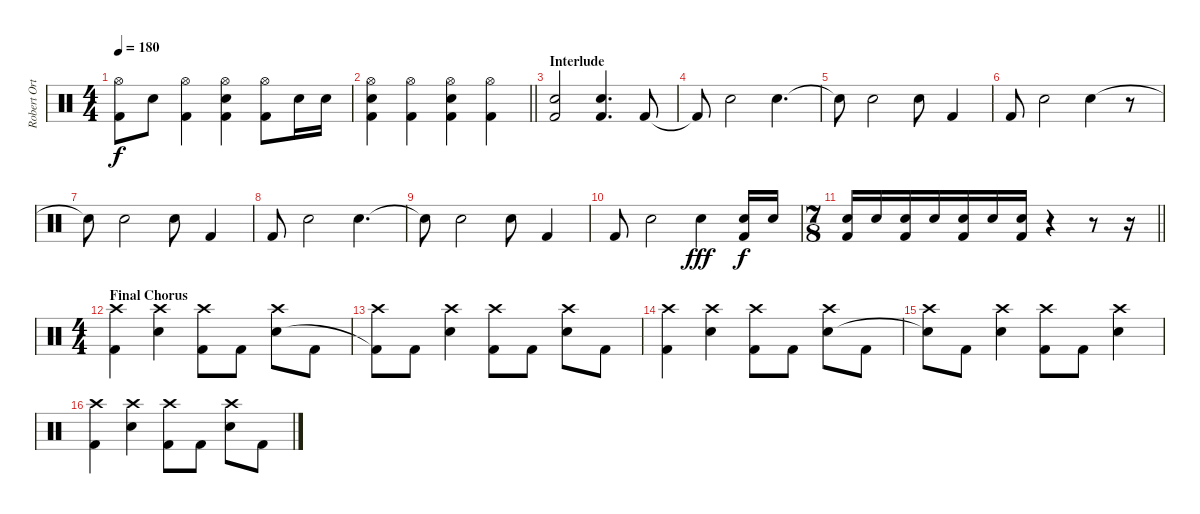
\track ("Robert Ortiz [Drums]" "Robert Ort") {instrument percussion}
\staff {score}
\articulation defaults
\ts (4 4)
\tempo 180
\clef neutral
\ks c
("Hi-Hat (open)" "Kick (hit) 2").8{dy f} "Electric Snare (hit)".8 ("Hi-Hat (open)" "Kick (hit) 2").4 ("Hi-Hat (open)" "Electric Snare (hit)" "Kick (hit) 2").4 ("Hi-Hat (open)" "Kick (hit) 2").8 "Electric Snare (hit)".16 "Electric Snare (hit)".16 |
\barLineRight lightlight
("Hi-Hat (open)" "Electric Snare (hit)" "Kick (hit) 2").4 ("Hi-Hat (open)" "Kick (hit) 2").4 ("Hi-Hat (open)" "Electric Snare (hit)" "Kick (hit) 2").4 ("Hi-Hat (open)" "Kick (hit) 2").4 |
\section ("" "Interlude")
("Electric Snare (hit)" "Kick (hit) 2").2 ("Electric Snare (hit)" "Kick (hit) 2").4{d} "Kick (hit) 2".8 |
"Kick (hit) 2"{t}.8 "Electric Snare (hit)".2 "Electric Snare (hit)".4{d} |
"Snare (hit)"{t}.8 "Electric Snare (hit)".2 "Electric Snare (hit)".8 "Kick (hit) 2".4 |
"Kick (hit) 2".8 "Electric Snare (hit)".2 "Electric Snare (hit)".4 r.8 |
"Snare (hit)"{t}.8 "Electric Snare (hit)".2 "Electric Snare (hit)".8 "Kick (hit) 2".4 |
"Kick (hit) 2".8 "Electric Snare (hit)".2 "Electric Snare (hit)".4{d} |
"Snare (hit)"{t}.8 "Electric Snare (hit)".2 "Electric Snare (hit)".8 "Kick (hit) 2".4 |
"Kick (hit) 2".8 "Electric Snare (hit)".2 "Electric Snare (hit)".4{dy fff} ("Electric Snare (hit)" "Kick (hit) 2").16{dy f} "Electric Snare (hit)".16 |
\ts (7 8)
\barLineRight lightlight
("Electric Snare (hit)" "Kick (hit) 2").16 "Electric Snare (hit)".16 ("Electric Snare (hit)" "Kick (hit) 2").16 "Electric Snare (hit)".16 ("Electric Snare (hit)" "Kick (hit) 2").16 "Electric Snare (hit)".16 ("Electric Snare (hit)" "Kick (hit) 2").16 r.4 r.8 r.16 |
\ts (4 4)
\section ("" "Final Chorus")
("Crash high (hit)" "Kick (hit) 2").4 ("Crash high (hit)" "Electric Snare (hit)").4 ("Crash high (hit)" "Kick (hit) 2").8 "Kick (hit) 2".8 ("Crash high (hit)" "Electric Snare (hit)").8 "Kick (hit) 2".8 |
("Crash high (hit)" "Kick (hit) 2"{t}).8 "Kick (hit) 2".8 ("Crash high (hit)" "Electric Snare (hit)").4 ("Crash high (hit)" "Kick (hit) 2").8 "Kick (hit) 2".8 ("Crash high (hit)" "Electric Snare (hit)").8 "Kick (hit) 2".8 |
("Crash high (hit)" "Kick (hit) 2").4 ("Crash high (hit)" "Electric Snare (hit)").4 ("Crash high (hit)" "Kick (hit) 2").8 "Kick (hit) 2".8 ("Crash high (hit)" "Electric Snare (hit)").8 "Kick (hit) 2".8 |
("Crash high (hit)" "Snare (hit)"{t}).8 "Kick (hit) 2".8 ("Crash high (hit)" "Electric Snare (hit)").4 ("Crash high (hit)" "Kick (hit) 2").8 "Kick (hit) 2".8 ("Crash high (hit)" "Electric Snare (hit)").4 |
("Crash high (hit)" "Kick (hit) 2").4 ("Crash high (hit)" "Electric Snare (hit)").4 ("Crash high (hit)" "Kick (hit) 2").8 "Kick (hit) 2".8 ("Crash high (hit)" "Electric Snare (hit)").8 "Kick (hit) 2".8
